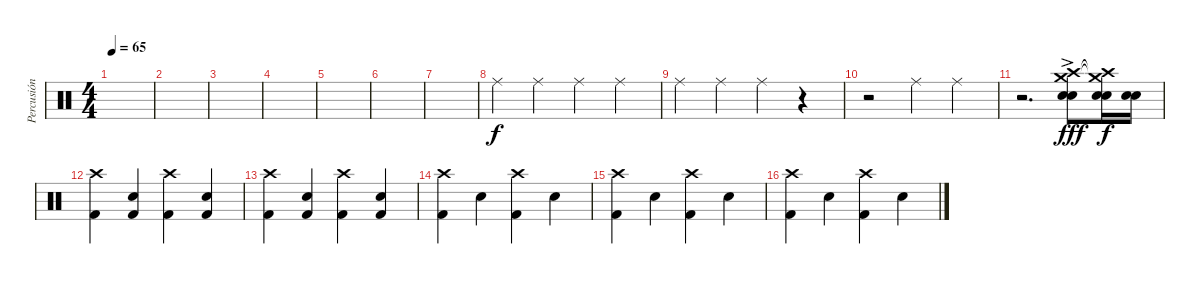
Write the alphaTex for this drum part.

\track ("Percusión" "Percusión") {instrument percussion}
\staff {score}
\articulation defaults
\ts (4 4)
\tempo 65
\clef neutral
\ks c
|
|
|
|
|
|
|
"Ride (middle)".4{volume 12} "Ride (middle)".4 "Ride (middle)".4 "Ride (middle)".4 |
"Ride (middle)".4 "Ride (middle)".4 "Ride (middle)".4 r.4 |
r.2 "Ride (middle)".4 "Ride (middle)".4 |
r.2{d} ("Crash medium (hit)"{ac} "Crash high (hit)" "Electric Snare (hit)" "Snare (hit) 2").8{dy fff volume 16} ("Crash medium (hit)"{t} "Crash high (hit)"{t} "Electric Snare (hit)" "Snare (hit) 2").16{dy f} ("Electric Snare (hit)" "Snare (hit) 2").16 |
("Crash high (hit)" "Kick (hit) 2").4 ("Kick (hit) 2" "Snare (hit) 2").4 ("Crash high (hit)" "Kick (hit) 2").4 ("Kick (hit) 2" "Snare (hit) 2").4 |
("Crash high (hit)" "Kick (hit) 2").4 ("Kick (hit) 2" "Snare (hit) 2").4 ("Crash high (hit)" "Kick (hit) 2").4 ("Kick (hit) 2" "Snare (hit) 2").4 |
("Crash high (hit)" "Kick (hit) 2").4 "Snare (hit) 2".4 ("Crash high (hit)" "Kick (hit) 2").4 "Snare (hit) 2".4 |
("Crash high (hit)" "Kick (hit) 2").4 "Snare (hit) 2".4 ("Crash high (hit)" "Kick (hit) 2").4 "Snare (hit) 2".4 |
("Crash high (hit)" "Kick (hit) 2").4 "Snare (hit) 2".4 ("Crash high (hit)" "Kick (hit) 2").4 "Snare (hit) 2".4
